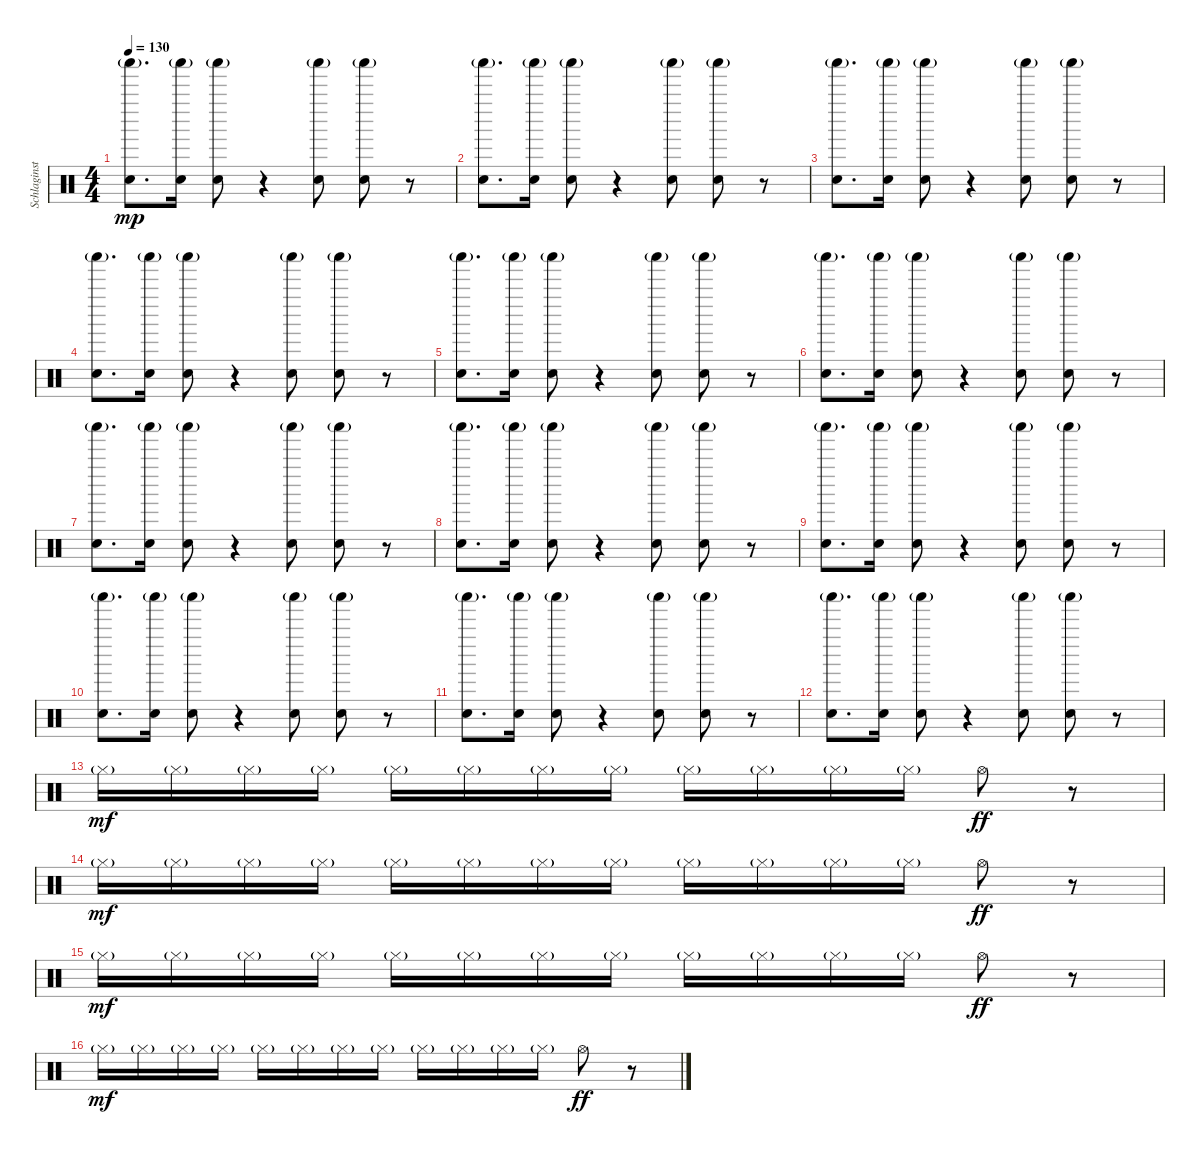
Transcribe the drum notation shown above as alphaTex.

\track ("Schlaginstrumente - Auswahl" "Schlaginst") {instrument percussion}
\staff {score}
\articulation defaults
\ts (4 4)
\tempo 130
\clef neutral
\ks c
("Shaker (hit)"{g} "Hand Clap (hit)").8{d dy mp} ("Shaker (hit)"{g} "Hand Clap (hit)").16 ("Shaker (hit)"{g} "Hand Clap (hit)").8 r.4 ("Shaker (hit)"{g} "Hand Clap (hit)").8 ("Shaker (hit)"{g} "Hand Clap (hit)").8 r.8 |
("Shaker (hit)"{g} "Hand Clap (hit)").8{d} ("Shaker (hit)"{g} "Hand Clap (hit)").16 ("Shaker (hit)"{g} "Hand Clap (hit)").8 r.4 ("Shaker (hit)"{g} "Hand Clap (hit)").8 ("Shaker (hit)"{g} "Hand Clap (hit)").8 r.8 |
("Shaker (hit)"{g} "Hand Clap (hit)").8{d} ("Shaker (hit)"{g} "Hand Clap (hit)").16 ("Shaker (hit)"{g} "Hand Clap (hit)").8 r.4 ("Shaker (hit)"{g} "Hand Clap (hit)").8 ("Shaker (hit)"{g} "Hand Clap (hit)").8 r.8 |
("Shaker (hit)"{g} "Hand Clap (hit)").8{d} ("Shaker (hit)"{g} "Hand Clap (hit)").16 ("Shaker (hit)"{g} "Hand Clap (hit)").8 r.4 ("Shaker (hit)"{g} "Hand Clap (hit)").8 ("Shaker (hit)"{g} "Hand Clap (hit)").8 r.8 |
("Shaker (hit)"{g} "Hand Clap (hit)").8{d} ("Shaker (hit)"{g} "Hand Clap (hit)").16 ("Shaker (hit)"{g} "Hand Clap (hit)").8 r.4 ("Shaker (hit)"{g} "Hand Clap (hit)").8 ("Shaker (hit)"{g} "Hand Clap (hit)").8 r.8 |
("Shaker (hit)"{g} "Hand Clap (hit)").8{d} ("Shaker (hit)"{g} "Hand Clap (hit)").16 ("Shaker (hit)"{g} "Hand Clap (hit)").8 r.4 ("Shaker (hit)"{g} "Hand Clap (hit)").8 ("Shaker (hit)"{g} "Hand Clap (hit)").8 r.8 |
("Shaker (hit)"{g} "Hand Clap (hit)").8{d} ("Shaker (hit)"{g} "Hand Clap (hit)").16 ("Shaker (hit)"{g} "Hand Clap (hit)").8 r.4 ("Shaker (hit)"{g} "Hand Clap (hit)").8 ("Shaker (hit)"{g} "Hand Clap (hit)").8 r.8 |
("Shaker (hit)"{g} "Hand Clap (hit)").8{d} ("Shaker (hit)"{g} "Hand Clap (hit)").16 ("Shaker (hit)"{g} "Hand Clap (hit)").8 r.4 ("Shaker (hit)"{g} "Hand Clap (hit)").8 ("Shaker (hit)"{g} "Hand Clap (hit)").8 r.8 |
("Shaker (hit)"{g} "Hand Clap (hit)").8{d} ("Shaker (hit)"{g} "Hand Clap (hit)").16 ("Shaker (hit)"{g} "Hand Clap (hit)").8 r.4 ("Shaker (hit)"{g} "Hand Clap (hit)").8 ("Shaker (hit)"{g} "Hand Clap (hit)").8 r.8 |
("Shaker (hit)"{g} "Hand Clap (hit)").8{d} ("Shaker (hit)"{g} "Hand Clap (hit)").16 ("Shaker (hit)"{g} "Hand Clap (hit)").8 r.4 ("Shaker (hit)"{g} "Hand Clap (hit)").8 ("Shaker (hit)"{g} "Hand Clap (hit)").8 r.8 |
("Shaker (hit)"{g} "Hand Clap (hit)").8{d} ("Shaker (hit)"{g} "Hand Clap (hit)").16 ("Shaker (hit)"{g} "Hand Clap (hit)").8 r.4 ("Shaker (hit)"{g} "Hand Clap (hit)").8 ("Shaker (hit)"{g} "Hand Clap (hit)").8 r.8 |
("Shaker (hit)"{g} "Hand Clap (hit)").8{d} ("Shaker (hit)"{g} "Hand Clap (hit)").16 ("Shaker (hit)"{g} "Hand Clap (hit)").8 r.4 ("Shaker (hit)"{g} "Hand Clap (hit)").8 ("Shaker (hit)"{g} "Hand Clap (hit)").8 r.8 |
"Hi-Hat (closed)"{g}.16{dy mf} "Hi-Hat (closed)"{g}.16 "Hi-Hat (closed)"{g}.16 "Hi-Hat (closed)"{g}.16 "Hi-Hat (closed)"{g}.16 "Hi-Hat (closed)"{g}.16 "Hi-Hat (closed)"{g}.16 "Hi-Hat (closed)"{g}.16 "Hi-Hat (closed)"{g}.16 "Hi-Hat (closed)"{g}.16 "Hi-Hat (closed)"{g}.16 "Hi-Hat (closed)"{g}.16 "Hi-Hat (open)".8{dy ff} r.8 |
"Hi-Hat (closed)"{g}.16{dy mf} "Hi-Hat (closed)"{g}.16 "Hi-Hat (closed)"{g}.16 "Hi-Hat (closed)"{g}.16 "Hi-Hat (closed)"{g}.16 "Hi-Hat (closed)"{g}.16 "Hi-Hat (closed)"{g}.16 "Hi-Hat (closed)"{g}.16 "Hi-Hat (closed)"{g}.16 "Hi-Hat (closed)"{g}.16 "Hi-Hat (closed)"{g}.16 "Hi-Hat (closed)"{g}.16 "Hi-Hat (open)".8{dy ff} r.8 |
"Hi-Hat (closed)"{g}.16{dy mf} "Hi-Hat (closed)"{g}.16 "Hi-Hat (closed)"{g}.16 "Hi-Hat (closed)"{g}.16 "Hi-Hat (closed)"{g}.16 "Hi-Hat (closed)"{g}.16 "Hi-Hat (closed)"{g}.16 "Hi-Hat (closed)"{g}.16 "Hi-Hat (closed)"{g}.16 "Hi-Hat (closed)"{g}.16 "Hi-Hat (closed)"{g}.16 "Hi-Hat (closed)"{g}.16 "Hi-Hat (open)".8{dy ff} r.8 |
"Hi-Hat (closed)"{g}.16{dy mf} "Hi-Hat (closed)"{g}.16 "Hi-Hat (closed)"{g}.16 "Hi-Hat (closed)"{g}.16 "Hi-Hat (closed)"{g}.16 "Hi-Hat (closed)"{g}.16 "Hi-Hat (closed)"{g}.16 "Hi-Hat (closed)"{g}.16 "Hi-Hat (closed)"{g}.16 "Hi-Hat (closed)"{g}.16 "Hi-Hat (closed)"{g}.16 "Hi-Hat (closed)"{g}.16 "Hi-Hat (open)".8{dy ff} r.8
